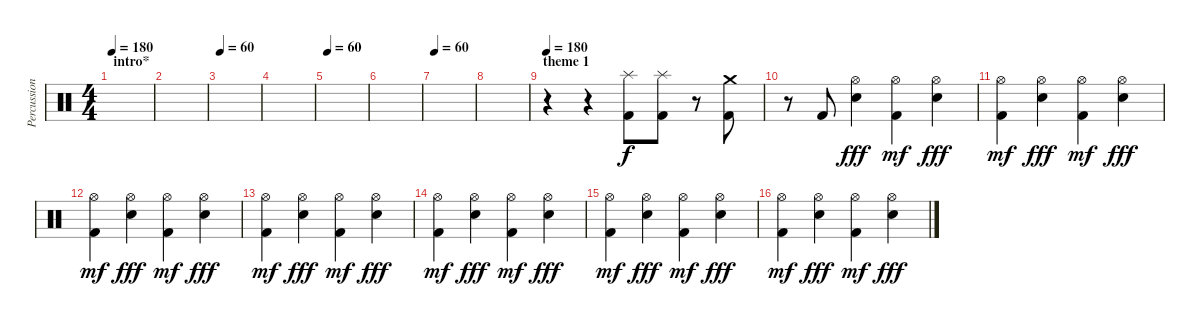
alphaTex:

\track ("Percussions" "Percussion") {instrument percussion}
\staff {score}
\articulation defaults
\ts (4 4)
\section ("" "intro*")
\tempo 180
\tempo 60
\tempo 180
\clef neutral
\ks c
|
|
\tempo 60
|
|
\tempo 60
|
|
\tempo 60
|
|
\section ("" "theme 1")
\tempo 180
r.4 r.4 ("Splash (hit)" "Kick (hit) 2").8 ("Splash (hit)" "Kick (hit) 2").8 r.8 ("Crash medium (hit)" "Kick (hit) 2").8 |
r.8 "Kick (hit) 2".8 ("Hi-Hat (open)" "Electric Snare (hit)").4{dy fff} ("Hi-Hat (open)" "Kick (hit) 2").4{dy mf} ("Hi-Hat (open)" "Electric Snare (hit)").4{dy fff} |
("Hi-Hat (open)" "Kick (hit) 2").4{dy mf} ("Hi-Hat (open)" "Electric Snare (hit)").4{dy fff} ("Hi-Hat (open)" "Kick (hit) 2").4{dy mf} ("Hi-Hat (open)" "Electric Snare (hit)").4{dy fff} |
("Hi-Hat (open)" "Kick (hit) 2").4{dy mf} ("Hi-Hat (open)" "Electric Snare (hit)").4{dy fff} ("Hi-Hat (open)" "Kick (hit) 2").4{dy mf} ("Hi-Hat (open)" "Electric Snare (hit)").4{dy fff} |
("Hi-Hat (open)" "Kick (hit) 2").4{dy mf} ("Hi-Hat (open)" "Electric Snare (hit)").4{dy fff} ("Hi-Hat (open)" "Kick (hit) 2").4{dy mf} ("Hi-Hat (open)" "Electric Snare (hit)").4{dy fff} |
("Hi-Hat (open)" "Kick (hit) 2").4{dy mf} ("Hi-Hat (open)" "Electric Snare (hit)").4{dy fff} ("Hi-Hat (open)" "Kick (hit) 2").4{dy mf} ("Hi-Hat (open)" "Electric Snare (hit)").4{dy fff} |
("Hi-Hat (open)" "Kick (hit) 2").4{dy mf} ("Hi-Hat (open)" "Electric Snare (hit)").4{dy fff} ("Hi-Hat (open)" "Kick (hit) 2").4{dy mf} ("Hi-Hat (open)" "Electric Snare (hit)").4{dy fff} |
("Hi-Hat (open)" "Kick (hit) 2").4{dy mf} ("Hi-Hat (open)" "Electric Snare (hit)").4{dy fff} ("Hi-Hat (open)" "Kick (hit) 2").4{dy mf} ("Hi-Hat (open)" "Electric Snare (hit)").4{dy fff}
